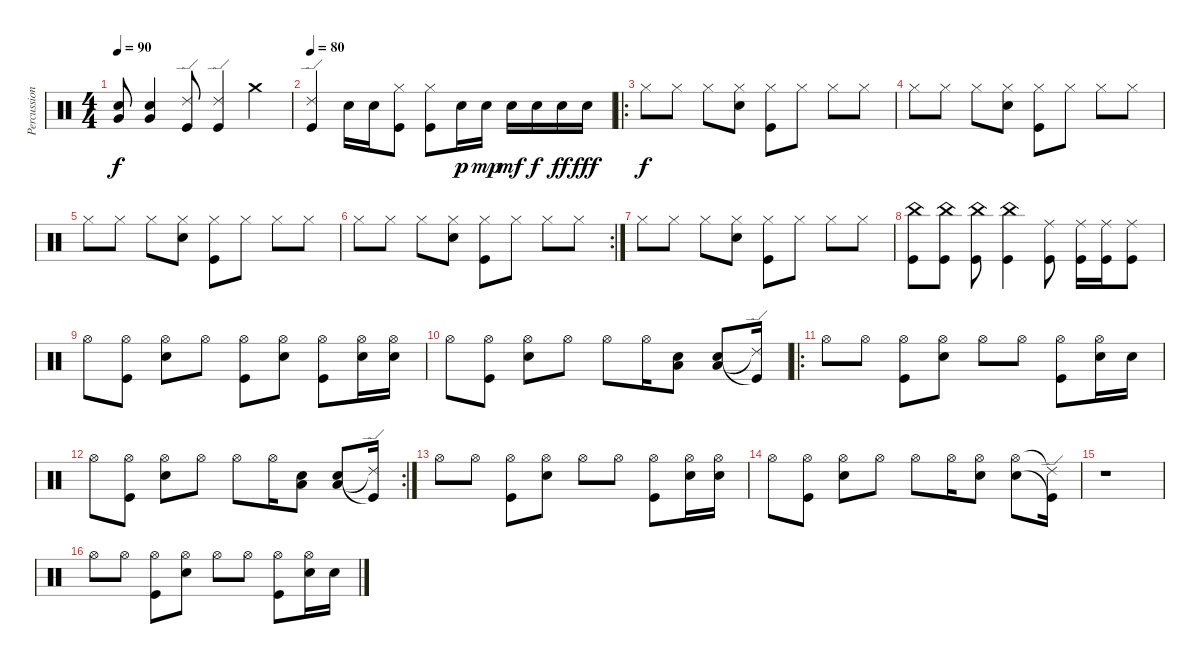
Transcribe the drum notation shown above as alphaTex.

\track ("Percussion" "Percussion") {instrument percussion}
\staff {score}
\articulation defaults
\ts (4 4)
\tempo 90
\clef neutral
\ks c
("Very Low Tom (hit)" "Snare (hit) 2").8{dy f} ("Very Low Tom (hit)" "Snare (hit) 2").4 ("Ride (edge) 2" "Kick (hit)").8 ("Ride (edge) 2" "Kick (hit)").4 "Crash medium (hit)".4 |
\tempo 80
("Kick (hit)" "Ride (edge) 2").4 "Snare (hit) 2".16 "Snare (hit) 2".16 ("Kick (hit)" "Hi-Hat (closed)").8 ("Kick (hit)" "Hi-Hat (closed)").8 "Snare (hit) 2".16{dy p} "Snare (hit) 2".16{dy mp} "Snare (hit) 2".16{dy mf} "Snare (hit) 2".16{dy f} "Snare (hit) 2".16{dy ff} "Snare (hit) 2".16{dy fff} |
\ro "Hi-Hat (closed)".8{dy f} "Hi-Hat (closed)".8 "Hi-Hat (closed)".8
("Snare (hit) 2" "Hi-Hat (closed)").8 ("Kick (hit)" "Hi-Hat (closed)").8 "Hi-Hat (closed)".8 "Hi-Hat (closed)".8 "Hi-Hat (closed)".8 |
"Hi-Hat (closed)".8 "Hi-Hat (closed)".8 "Hi-Hat (closed)".8 ("Snare (hit) 2" "Hi-Hat (closed)").8 ("Kick (hit)" "Hi-Hat (closed)").8 "Hi-Hat (closed)".8 "Hi-Hat (closed)".8 "Hi-Hat (closed)".8 |
"Hi-Hat (closed)".8 "Hi-Hat (closed)".8 "Hi-Hat (closed)".8 ("Snare (hit) 2" "Hi-Hat (closed)").8 ("Kick (hit)" "Hi-Hat (closed)").8 "Hi-Hat (closed)".8 "Hi-Hat (closed)".8 "Hi-Hat (closed)".8 |
\rc 2 "Hi-Hat (closed)".8 "Hi-Hat (closed)".8 "Hi-Hat (closed)".8
("Snare (hit) 2" "Hi-Hat (closed)").8 ("Kick (hit)" "Hi-Hat (closed)").8 "Hi-Hat (closed)".8 "Hi-Hat (closed)".8 "Hi-Hat (closed)".8 |
"Hi-Hat (closed)".8 "Hi-Hat (closed)".8 "Hi-Hat (closed)".8 ("Snare (hit) 2" "Hi-Hat (closed)").8 ("Kick (hit)" "Hi-Hat (closed)").8 "Hi-Hat (closed)".8 "Hi-Hat (closed)".8 "Hi-Hat (closed)".8 |
("China (hit)" "Kick (hit)").8 ("China (hit)" "Kick (hit)").8 ("China (hit)" "Kick (hit)").8 ("China (hit)" "Kick (hit)").4 ("Ride (middle)" "Kick (hit)").8 ("Ride (middle)" "Kick (hit)").16 ("Ride (middle)" "Kick (hit)").16 ("Ride (middle)" "Kick (hit)").8 |
"Hi-Hat (open)".8 ("Kick (hit)" "Hi-Hat (open)").8 ("Snare (hit) 2" "Hi-Hat (open)").8 "Hi-Hat (open)".8 ("Kick (hit)" "Hi-Hat (open)").8 ("Snare (hit) 2" "Hi-Hat (open)").8 ("Kick (hit)" "Hi-Hat (open)").8 ("Snare (hit) 2" "Hi-Hat (open)").16 ("Snare (hit) 2" "Hi-Hat (open)").16 |
"Hi-Hat (open)".8 ("Kick (hit)" "Hi-Hat (open)").8 ("Snare (hit) 2" "Hi-Hat (open)").8 "Hi-Hat (open)".8 "Hi-Hat (open)".8 "Hi-Hat (open)".16 ("Snare (hit) 2" "Low Tom (hit)").8 ("Snare (hit) 2" "Low Tom (hit)").8 ("Kick (hit)"{t} "Ride (edge) 2"{t}).16 |
\ro "Hi-Hat (open)".8 "Hi-Hat (open)".8
("Kick (hit)" "Hi-Hat (open)").8 ("Snare (hit) 2" "Hi-Hat (open)").8 "Hi-Hat (open)".8 "Hi-Hat (open)".8 ("Kick (hit)" "Hi-Hat (open)").8 ("Snare (hit) 2" "Hi-Hat (open)").16 "Snare (hit) 2".16 |
\rc 2 "Hi-Hat (open)".8
("Kick (hit)" "Hi-Hat (open)").8 ("Snare (hit) 2" "Hi-Hat (open)").8 "Hi-Hat (open)".8 "Hi-Hat (open)".8 "Hi-Hat (open)".16 ("Snare (hit) 2" "Low Tom (hit)").8 ("Snare (hit) 2" "Low Tom (hit)").8 ("Kick (hit)"{t} "Ride (edge) 2"{t}).16 |
"Hi-Hat (open)".8 "Hi-Hat (open)".8 ("Kick (hit)" "Hi-Hat (open)").8 ("Snare (hit) 2" "Hi-Hat (open)").8 "Hi-Hat (open)".8 "Hi-Hat (open)".8 ("Kick (hit)" "Hi-Hat (open)").8 ("Snare (hit) 2" "Hi-Hat (open)").16 ("Snare (hit) 2" "Hi-Hat (open)").16 |
"Hi-Hat (open)".8 ("Kick (hit)" "Hi-Hat (open)").8 ("Snare (hit) 2" "Hi-Hat (open)").8 "Hi-Hat (open)".8 "Hi-Hat (open)".8 "Hi-Hat (open)".16 ("Snare (hit) 2" "Hi-Hat (open)").8 ("Snare (hit) 2" "Hi-Hat (open)").8 ("Kick (hit)"{t} "Ride (edge) 2"{t}).16 |
r.1 |
"Hi-Hat (open)".8 "Hi-Hat (open)".8 ("Kick (hit)" "Hi-Hat (open)").8 ("Snare (hit) 2" "Hi-Hat (open)").8 "Hi-Hat (open)".8 "Hi-Hat (open)".8 ("Kick (hit)" "Hi-Hat (open)").8 ("Snare (hit) 2" "Hi-Hat (open)").16 "Snare (hit) 2".16
